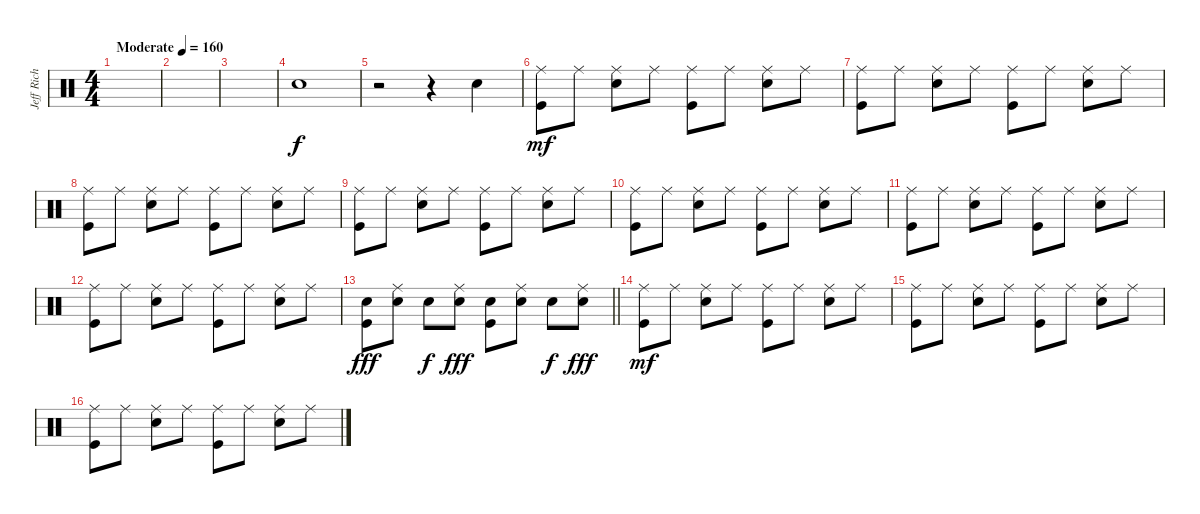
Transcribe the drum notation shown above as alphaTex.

\track ("Jeff Rich (Percussion)" "Jeff Rich ") {instrument percussion}
\staff {score}
\articulation defaults
\ts (4 4)
\tempo (160 "Moderate")
\clef neutral
\ks c
|
|
|
"Snare (hit) 2".1 |
r.2 r.4 "Snare (hit) 2".4 |
("Ride (middle)" "Kick (hit)").8{dy mf} "Ride (middle)".8 ("Ride (middle)" "Snare (hit) 2").8 "Ride (middle)".8 ("Ride (middle)" "Kick (hit)").8 "Ride (middle)".8 ("Ride (middle)" "Snare (hit) 2").8 "Ride (middle)".8 |
("Ride (middle)" "Kick (hit)").8 "Ride (middle)".8 ("Ride (middle)" "Snare (hit) 2").8 "Ride (middle)".8 ("Ride (middle)" "Kick (hit)").8 "Ride (middle)".8 ("Ride (middle)" "Snare (hit) 2").8 "Ride (middle)".8 |
("Ride (middle)" "Kick (hit)").8 "Ride (middle)".8 ("Ride (middle)" "Snare (hit) 2").8 "Ride (middle)".8 ("Ride (middle)" "Kick (hit)").8 "Ride (middle)".8 ("Ride (middle)" "Snare (hit) 2").8 "Ride (middle)".8 |
("Ride (middle)" "Kick (hit)").8 "Ride (middle)".8 ("Ride (middle)" "Snare (hit) 2").8 "Ride (middle)".8 ("Ride (middle)" "Kick (hit)").8 "Ride (middle)".8 ("Ride (middle)" "Snare (hit) 2").8 "Ride (middle)".8 |
("Ride (middle)" "Kick (hit)").8 "Ride (middle)".8 ("Ride (middle)" "Snare (hit) 2").8 "Ride (middle)".8 ("Ride (middle)" "Kick (hit)").8 "Ride (middle)".8 ("Ride (middle)" "Snare (hit) 2").8 "Ride (middle)".8 |
("Ride (middle)" "Kick (hit)").8 "Ride (middle)".8 ("Ride (middle)" "Snare (hit) 2").8 "Ride (middle)".8 ("Ride (middle)" "Kick (hit)").8 "Ride (middle)".8 ("Ride (middle)" "Snare (hit) 2").8 "Ride (middle)".8 |
("Ride (middle)" "Kick (hit)").8 "Ride (middle)".8 ("Ride (middle)" "Snare (hit) 2").8 "Ride (middle)".8 ("Ride (middle)" "Kick (hit)").8 "Ride (middle)".8 ("Ride (middle)" "Snare (hit) 2").8 "Ride (middle)".8 |
\barLineRight lightlight
("Snare (hit) 2" "Kick (hit)").8{dy fff} ("Ride (middle)" "Snare (hit) 2").8 "Snare (hit) 2".8{dy f} ("Ride (middle)" "Snare (hit) 2").8{dy fff} ("Snare (hit) 2" "Kick (hit)").8 ("Ride (middle)" "Snare (hit) 2").8 "Snare (hit) 2".8{dy f} ("Ride (middle)" "Snare (hit) 2").8{dy fff} |
("Ride (middle)" "Kick (hit)").8{dy mf} "Ride (middle)".8 ("Ride (middle)" "Snare (hit) 2").8 "Ride (middle)".8 ("Ride (middle)" "Kick (hit)").8 "Ride (middle)".8 ("Ride (middle)" "Snare (hit) 2").8 "Ride (middle)".8 |
("Ride (middle)" "Kick (hit)").8 "Ride (middle)".8 ("Ride (middle)" "Snare (hit) 2").8 "Ride (middle)".8 ("Ride (middle)" "Kick (hit)").8 "Ride (middle)".8 ("Ride (middle)" "Snare (hit) 2").8 "Ride (middle)".8 |
("Ride (middle)" "Kick (hit)").8 "Ride (middle)".8 ("Ride (middle)" "Snare (hit) 2").8 "Ride (middle)".8 ("Ride (middle)" "Kick (hit)").8 "Ride (middle)".8 ("Ride (middle)" "Snare (hit) 2").8 "Ride (middle)".8
